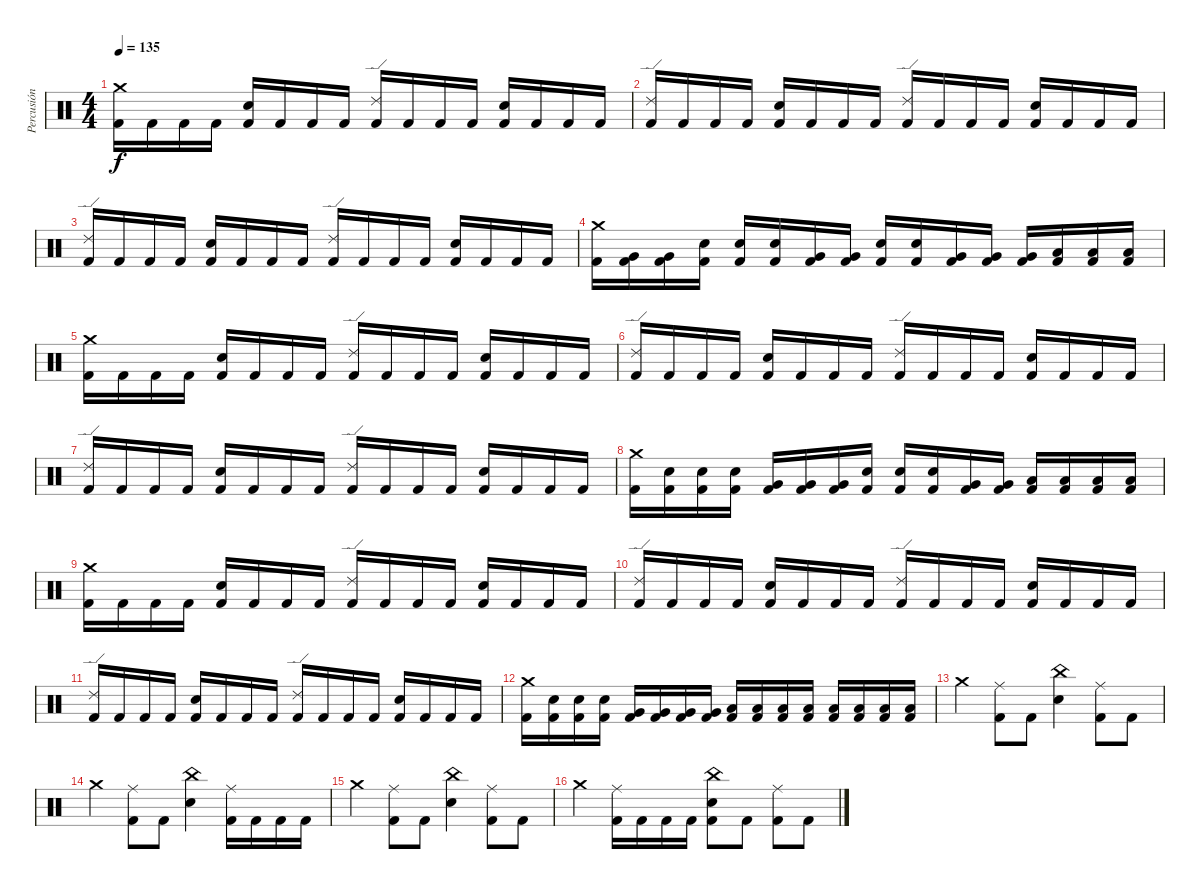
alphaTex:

\track ("Percusión" "Percusión") {instrument percussion}
\staff {score}
\articulation defaults
\ts (4 4)
\tempo 135
\clef neutral
\ks c
("Crash medium (hit)" "Kick (hit) 2").16{dy f} "Kick (hit) 2".16 "Kick (hit) 2".16 "Kick (hit) 2".16 ("Snare (hit) 2" "Kick (hit) 2").16 "Kick (hit) 2".16 "Kick (hit) 2".16 "Kick (hit) 2".16 ("Ride (edge) 2" "Kick (hit) 2").16 "Kick (hit) 2".16 "Kick (hit) 2".16 "Kick (hit) 2".16 ("Snare (hit) 2" "Kick (hit) 2").16 "Kick (hit) 2".16 "Kick (hit) 2".16 "Kick (hit) 2".16 |
("Ride (edge) 2" "Kick (hit) 2").16 "Kick (hit) 2".16 "Kick (hit) 2".16 "Kick (hit) 2".16 ("Snare (hit) 2" "Kick (hit) 2").16 "Kick (hit) 2".16 "Kick (hit) 2".16 "Kick (hit) 2".16 ("Ride (edge) 2" "Kick (hit) 2").16 "Kick (hit) 2".16 "Kick (hit) 2".16 "Kick (hit) 2".16 ("Snare (hit) 2" "Kick (hit) 2").16 "Kick (hit) 2".16 "Kick (hit) 2".16 "Kick (hit) 2".16 |
("Ride (edge) 2" "Kick (hit) 2").16 "Kick (hit) 2".16 "Kick (hit) 2".16 "Kick (hit) 2".16 ("Snare (hit) 2" "Kick (hit) 2").16 "Kick (hit) 2".16 "Kick (hit) 2".16 "Kick (hit) 2".16 ("Ride (edge) 2" "Kick (hit) 2").16 "Kick (hit) 2".16 "Kick (hit) 2".16 "Kick (hit) 2".16 ("Snare (hit) 2" "Kick (hit) 2").16 "Kick (hit) 2".16 "Kick (hit) 2".16 "Kick (hit) 2".16 |
("Crash medium (hit)" "Kick (hit) 2").16 ("Very Low Tom (hit)" "Kick (hit) 2").16 ("Very Low Tom (hit)" "Kick (hit) 2").16 ("Snare (hit) 2" "Kick (hit) 2").16 ("Snare (hit) 2" "Kick (hit) 2").16 ("Snare (hit) 2" "Kick (hit) 2").16 ("Very Low Tom (hit)" "Kick (hit) 2").16 ("Very Low Tom (hit)" "Kick (hit) 2").16 ("Snare (hit) 2" "Kick (hit) 2").16 ("Snare (hit) 2" "Kick (hit) 2").16 ("Very Low Tom (hit)" "Kick (hit) 2").16 ("Very Low Tom (hit)" "Kick (hit) 2").16 ("Very Low Tom (hit)" "Kick (hit) 2").16 ("Low Floor Tom (hit)" "Kick (hit) 2").16 ("Low Floor Tom (hit)" "Kick (hit) 2").16 ("Low Floor Tom (hit)" "Kick (hit) 2").16 |
("Crash medium (hit)" "Kick (hit) 2").16 "Kick (hit) 2".16 "Kick (hit) 2".16 "Kick (hit) 2".16 ("Snare (hit) 2" "Kick (hit) 2").16 "Kick (hit) 2".16 "Kick (hit) 2".16 "Kick (hit) 2".16 ("Ride (edge) 2" "Kick (hit) 2").16 "Kick (hit) 2".16 "Kick (hit) 2".16 "Kick (hit) 2".16 ("Snare (hit) 2" "Kick (hit) 2").16 "Kick (hit) 2".16 "Kick (hit) 2".16 "Kick (hit) 2".16 |
("Ride (edge) 2" "Kick (hit) 2").16 "Kick (hit) 2".16 "Kick (hit) 2".16 "Kick (hit) 2".16 ("Snare (hit) 2" "Kick (hit) 2").16 "Kick (hit) 2".16 "Kick (hit) 2".16 "Kick (hit) 2".16 ("Ride (edge) 2" "Kick (hit) 2").16 "Kick (hit) 2".16 "Kick (hit) 2".16 "Kick (hit) 2".16 ("Snare (hit) 2" "Kick (hit) 2").16 "Kick (hit) 2".16 "Kick (hit) 2".16 "Kick (hit) 2".16 |
("Ride (edge) 2" "Kick (hit) 2").16 "Kick (hit) 2".16 "Kick (hit) 2".16 "Kick (hit) 2".16 ("Snare (hit) 2" "Kick (hit) 2").16 "Kick (hit) 2".16 "Kick (hit) 2".16 "Kick (hit) 2".16 ("Ride (edge) 2" "Kick (hit) 2").16 "Kick (hit) 2".16 "Kick (hit) 2".16 "Kick (hit) 2".16 ("Snare (hit) 2" "Kick (hit) 2").16 "Kick (hit) 2".16 "Kick (hit) 2".16 "Kick (hit) 2".16 |
("Crash medium (hit)" "Kick (hit) 2").16 ("Snare (hit) 2" "Kick (hit) 2").16 ("Snare (hit) 2" "Kick (hit) 2").16 ("Snare (hit) 2" "Kick (hit) 2").16 ("Very Low Tom (hit)" "Kick (hit) 2").16 ("Very Low Tom (hit)" "Kick (hit) 2").16 ("Very Low Tom (hit)" "Kick (hit) 2").16 ("Snare (hit) 2" "Kick (hit) 2").16 ("Snare (hit) 2" "Kick (hit) 2").16 ("Snare (hit) 2" "Kick (hit) 2").16 ("Very Low Tom (hit)" "Kick (hit) 2").16 ("Very Low Tom (hit)" "Kick (hit) 2").16 ("Low Floor Tom (hit)" "Kick (hit) 2").16 ("Low Floor Tom (hit)" "Kick (hit) 2").16 ("Low Tom (hit)" "Kick (hit) 2").16 ("Low Tom (hit)" "Kick (hit) 2").16 |
("Crash medium (hit)" "Kick (hit) 2").16 "Kick (hit) 2".16 "Kick (hit) 2".16 "Kick (hit) 2".16 ("Snare (hit) 2" "Kick (hit) 2").16 "Kick (hit) 2".16 "Kick (hit) 2".16 "Kick (hit) 2".16 ("Ride (edge) 2" "Kick (hit) 2").16 "Kick (hit) 2".16 "Kick (hit) 2".16 "Kick (hit) 2".16 ("Snare (hit) 2" "Kick (hit) 2").16 "Kick (hit) 2".16 "Kick (hit) 2".16 "Kick (hit) 2".16 |
("Ride (edge) 2" "Kick (hit) 2").16 "Kick (hit) 2".16 "Kick (hit) 2".16 "Kick (hit) 2".16 ("Snare (hit) 2" "Kick (hit) 2").16 "Kick (hit) 2".16 "Kick (hit) 2".16 "Kick (hit) 2".16 ("Ride (edge) 2" "Kick (hit) 2").16 "Kick (hit) 2".16 "Kick (hit) 2".16 "Kick (hit) 2".16 ("Snare (hit) 2" "Kick (hit) 2").16 "Kick (hit) 2".16 "Kick (hit) 2".16 "Kick (hit) 2".16 |
("Ride (edge) 2" "Kick (hit) 2").16 "Kick (hit) 2".16 "Kick (hit) 2".16 "Kick (hit) 2".16 ("Snare (hit) 2" "Kick (hit) 2").16 "Kick (hit) 2".16 "Kick (hit) 2".16 "Kick (hit) 2".16 ("Ride (edge) 2" "Kick (hit) 2").16 "Kick (hit) 2".16 "Kick (hit) 2".16 "Kick (hit) 2".16 ("Snare (hit) 2" "Kick (hit) 2").16 "Kick (hit) 2".16 "Kick (hit) 2".16 "Kick (hit) 2".16 |
("Crash medium (hit)" "Kick (hit) 2").16 ("Snare (hit) 2" "Kick (hit) 2").16 ("Snare (hit) 2" "Kick (hit) 2").16 ("Snare (hit) 2" "Kick (hit) 2").16 ("Very Low Tom (hit)" "Kick (hit) 2").16 ("Very Low Tom (hit)" "Kick (hit) 2").16 ("Very Low Tom (hit)" "Kick (hit) 2").16 ("Very Low Tom (hit)" "Kick (hit) 2").16 ("Low Tom (hit)" "Kick (hit) 2").16 ("Low Tom (hit)" "Kick (hit) 2").16 ("Low Tom (hit)" "Kick (hit) 2").16 ("Low Tom (hit)" "Kick (hit) 2").16 ("Low Floor Tom (hit)" "Kick (hit) 2").16 ("Low Floor Tom (hit)" "Kick (hit) 2").16 ("Low Floor Tom (hit)" "Kick (hit) 2").16 ("Low Floor Tom (hit)" "Kick (hit) 2").16 |
"Crash medium (hit)".4 ("Ride (middle)" "Kick (hit) 2").8 "Kick (hit) 2".8 ("Snare (hit) 2" "China (hit)").4 ("Ride (middle)" "Kick (hit) 2").8 "Kick (hit) 2".8 |
"Crash medium (hit)".4 ("Ride (middle)" "Kick (hit) 2").8 "Kick (hit) 2".8 ("Snare (hit) 2" "China (hit)").4 ("Ride (middle)" "Kick (hit) 2").16 "Kick (hit) 2".16 "Kick (hit) 2".16 "Kick (hit) 2".16 |
"Crash medium (hit)".4 ("Ride (middle)" "Kick (hit) 2").8 "Kick (hit) 2".8 ("Snare (hit) 2" "China (hit)").4 ("Ride (middle)" "Kick (hit) 2").8 "Kick (hit) 2".8 |
"Crash medium (hit)".4 ("Ride (middle)" "Kick (hit) 2").16 "Kick (hit) 2".16 "Kick (hit) 2".16 "Kick (hit) 2".16 ("Snare (hit) 2" "China (hit)" "Kick (hit) 2").8 "Kick (hit) 2".8 ("Ride (middle)" "Kick (hit) 2").8 "Kick (hit) 2".8
